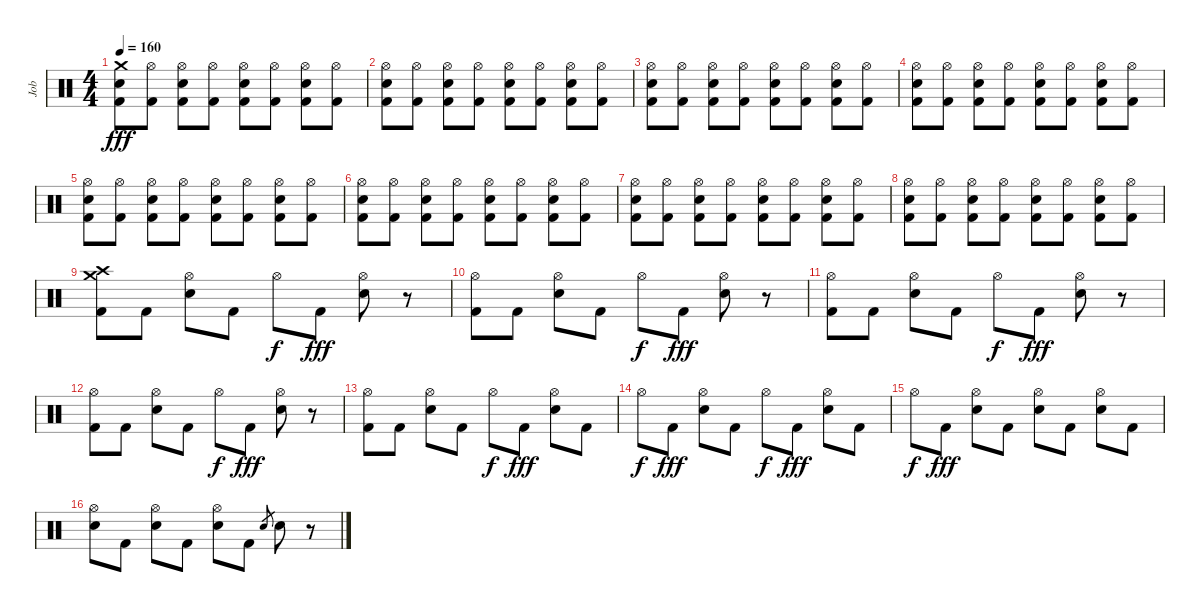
\track ("Job" "Job") {instrument percussion}
\staff {score}
\articulation defaults
\ts (4 4)
\tempo 160
\clef neutral
\ks c
("Crash medium (hit)" "Electric Snare (hit)" "Kick (hit) 2").8{dy fff} ("Hi-Hat (open)" "Kick (hit) 2").8 ("Hi-Hat (open)" "Electric Snare (hit)" "Kick (hit) 2").8 ("Hi-Hat (open)" "Kick (hit) 2").8 ("Hi-Hat (open)" "Electric Snare (hit)" "Kick (hit) 2").8 ("Hi-Hat (open)" "Kick (hit) 2").8 ("Hi-Hat (open)" "Electric Snare (hit)" "Kick (hit) 2").8 ("Hi-Hat (open)" "Kick (hit) 2").8 |
("Hi-Hat (open)" "Electric Snare (hit)" "Kick (hit) 2").8 ("Hi-Hat (open)" "Kick (hit) 2").8 ("Hi-Hat (open)" "Electric Snare (hit)" "Kick (hit) 2").8 ("Hi-Hat (open)" "Kick (hit) 2").8 ("Hi-Hat (open)" "Electric Snare (hit)" "Kick (hit) 2").8 ("Hi-Hat (open)" "Kick (hit) 2").8 ("Hi-Hat (open)" "Electric Snare (hit)" "Kick (hit) 2").8 ("Hi-Hat (open)" "Kick (hit) 2").8 |
("Hi-Hat (open)" "Electric Snare (hit)" "Kick (hit) 2").8 ("Hi-Hat (open)" "Kick (hit) 2").8 ("Hi-Hat (open)" "Electric Snare (hit)" "Kick (hit) 2").8 ("Hi-Hat (open)" "Kick (hit) 2").8 ("Hi-Hat (open)" "Electric Snare (hit)" "Kick (hit) 2").8 ("Hi-Hat (open)" "Kick (hit) 2").8 ("Hi-Hat (open)" "Electric Snare (hit)" "Kick (hit) 2").8 ("Hi-Hat (open)" "Kick (hit) 2").8 |
("Hi-Hat (open)" "Electric Snare (hit)" "Kick (hit) 2").8 ("Hi-Hat (open)" "Kick (hit) 2").8 ("Hi-Hat (open)" "Electric Snare (hit)" "Kick (hit) 2").8 ("Hi-Hat (open)" "Kick (hit) 2").8 ("Hi-Hat (open)" "Electric Snare (hit)" "Kick (hit) 2").8 ("Hi-Hat (open)" "Kick (hit) 2").8 ("Hi-Hat (open)" "Electric Snare (hit)" "Kick (hit) 2").8 ("Hi-Hat (open)" "Kick (hit) 2").8 |
("Hi-Hat (open)" "Electric Snare (hit)" "Kick (hit) 2").8 ("Hi-Hat (open)" "Kick (hit) 2").8 ("Hi-Hat (open)" "Electric Snare (hit)" "Kick (hit) 2").8 ("Hi-Hat (open)" "Kick (hit) 2").8 ("Hi-Hat (open)" "Electric Snare (hit)" "Kick (hit) 2").8 ("Hi-Hat (open)" "Kick (hit) 2").8 ("Hi-Hat (open)" "Electric Snare (hit)" "Kick (hit) 2").8 ("Hi-Hat (open)" "Kick (hit) 2").8 |
("Hi-Hat (open)" "Electric Snare (hit)" "Kick (hit) 2").8 ("Hi-Hat (open)" "Kick (hit) 2").8 ("Hi-Hat (open)" "Electric Snare (hit)" "Kick (hit) 2").8 ("Hi-Hat (open)" "Kick (hit) 2").8 ("Hi-Hat (open)" "Electric Snare (hit)" "Kick (hit) 2").8 ("Hi-Hat (open)" "Kick (hit) 2").8 ("Hi-Hat (open)" "Electric Snare (hit)" "Kick (hit) 2").8 ("Hi-Hat (open)" "Kick (hit) 2").8 |
("Hi-Hat (open)" "Electric Snare (hit)" "Kick (hit) 2").8 ("Hi-Hat (open)" "Kick (hit) 2").8 ("Hi-Hat (open)" "Electric Snare (hit)" "Kick (hit) 2").8 ("Hi-Hat (open)" "Kick (hit) 2").8 ("Hi-Hat (open)" "Electric Snare (hit)" "Kick (hit) 2").8 ("Hi-Hat (open)" "Kick (hit) 2").8 ("Hi-Hat (open)" "Electric Snare (hit)" "Kick (hit) 2").8 ("Hi-Hat (open)" "Kick (hit) 2").8 |
("Hi-Hat (open)" "Electric Snare (hit)" "Kick (hit) 2").8 ("Hi-Hat (open)" "Kick (hit) 2").8 ("Hi-Hat (open)" "Electric Snare (hit)" "Kick (hit) 2").8 ("Hi-Hat (open)" "Kick (hit) 2").8 ("Hi-Hat (open)" "Electric Snare (hit)" "Kick (hit) 2").8 ("Hi-Hat (open)" "Kick (hit) 2").8 ("Hi-Hat (open)" "Electric Snare (hit)" "Kick (hit) 2").8 ("Hi-Hat (open)" "Kick (hit) 2").8 |
("Crash medium (hit)" "Crash high (hit)" "Kick (hit) 2").8 "Kick (hit) 2".8 ("Hi-Hat (open)" "Electric Snare (hit)").8 "Kick (hit) 2".8 "Hi-Hat (open)".8{dy f} "Kick (hit) 2".8{dy fff} ("Hi-Hat (open)" "Electric Snare (hit)").8 r.8 |
("Hi-Hat (open)" "Kick (hit) 2").8 "Kick (hit) 2".8 ("Hi-Hat (open)" "Electric Snare (hit)").8 "Kick (hit) 2".8 "Hi-Hat (open)".8{dy f} "Kick (hit) 2".8{dy fff} ("Hi-Hat (open)" "Electric Snare (hit)").8 r.8 |
("Hi-Hat (open)" "Kick (hit) 2").8 "Kick (hit) 2".8 ("Hi-Hat (open)" "Electric Snare (hit)").8 "Kick (hit) 2".8 "Hi-Hat (open)".8{dy f} "Kick (hit) 2".8{dy fff} ("Hi-Hat (open)" "Electric Snare (hit)").8 r.8 |
("Hi-Hat (open)" "Kick (hit) 2").8 "Kick (hit) 2".8 ("Hi-Hat (open)" "Electric Snare (hit)").8 "Kick (hit) 2".8 "Hi-Hat (open)".8{dy f} "Kick (hit) 2".8{dy fff} ("Hi-Hat (open)" "Electric Snare (hit)").8 r.8 |
("Hi-Hat (open)" "Kick (hit) 2").8 "Kick (hit) 2".8 ("Hi-Hat (open)" "Electric Snare (hit)").8 "Kick (hit) 2".8 "Hi-Hat (open)".8{dy f} "Kick (hit) 2".8{dy fff} ("Hi-Hat (open)" "Electric Snare (hit)").8 "Kick (hit) 2".8 |
"Hi-Hat (open)".8{dy f} "Kick (hit) 2".8{dy fff} ("Hi-Hat (open)" "Electric Snare (hit)").8 "Kick (hit) 2".8 "Hi-Hat (open)".8{dy f} "Kick (hit) 2".8{dy fff} ("Hi-Hat (open)" "Electric Snare (hit)").8 "Kick (hit) 2".8 |
"Hi-Hat (open)".8{dy f} "Kick (hit) 2".8{dy fff} ("Hi-Hat (open)" "Electric Snare (hit)").8 "Kick (hit) 2".8 ("Hi-Hat (open)" "Electric Snare (hit)").8 "Kick (hit) 2".8 ("Hi-Hat (open)" "Electric Snare (hit)").8 "Kick (hit) 2".8 |
("Hi-Hat (open)" "Electric Snare (hit)").8 "Kick (hit) 2".8 ("Hi-Hat (open)" "Electric Snare (hit)").8 "Kick (hit) 2".8 ("Hi-Hat (open)" "Electric Snare (hit)").8 "Kick (hit) 2".8 "Electric Snare (hit)".8{gr} "Electric Snare (hit)".8 r.8
